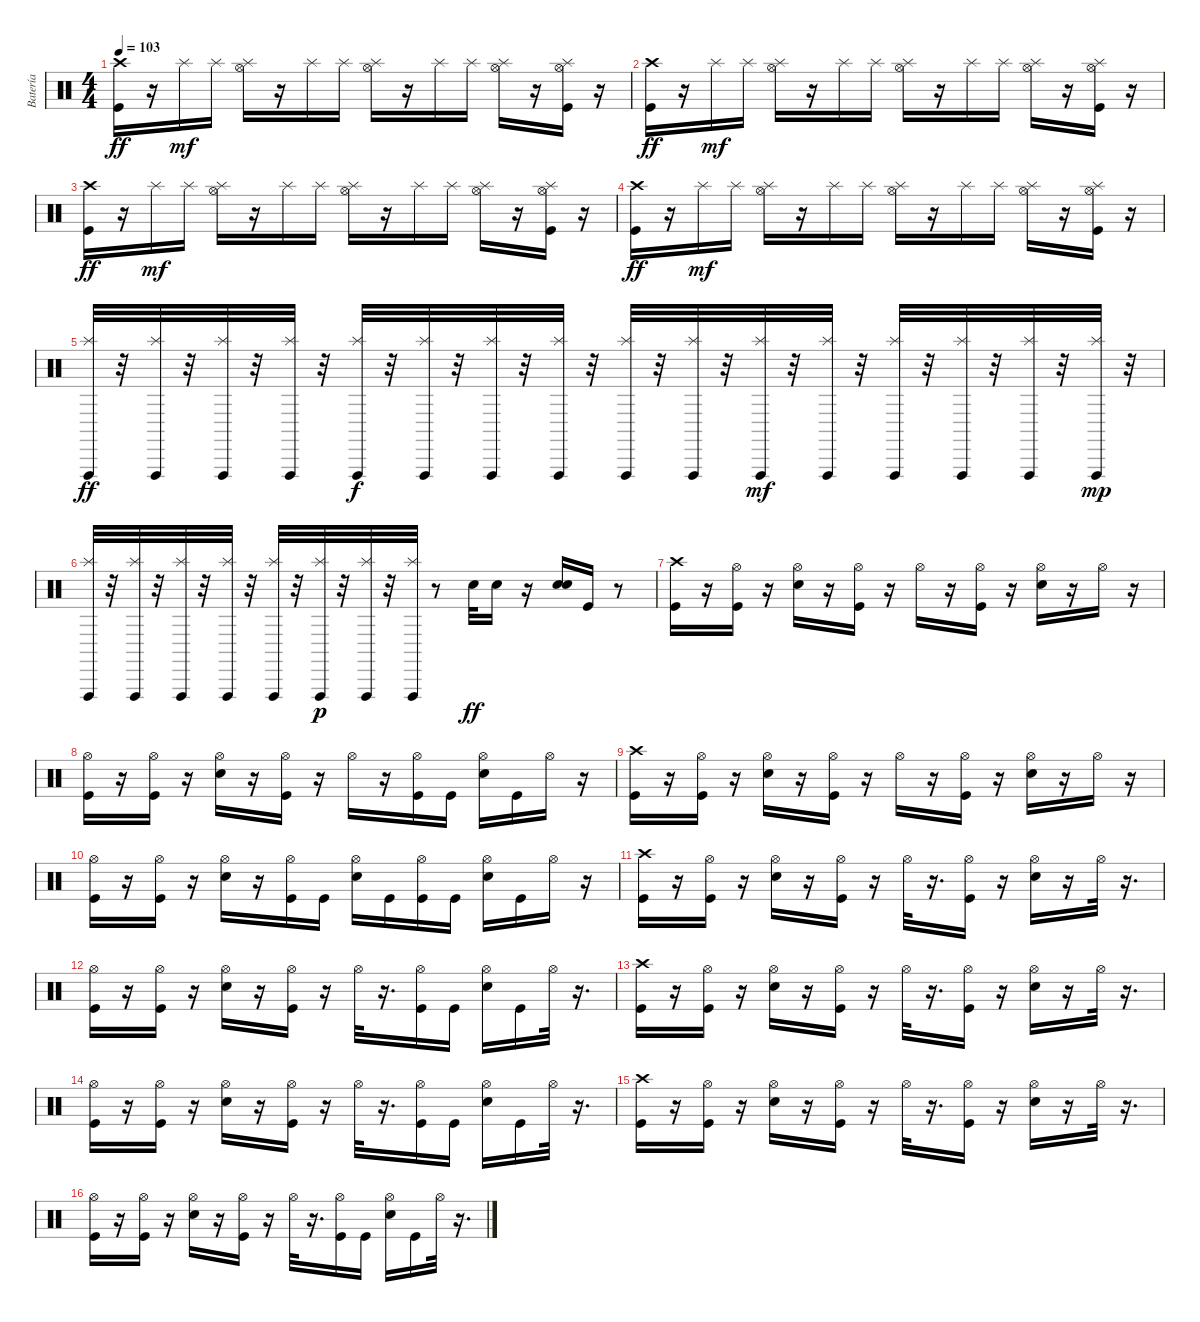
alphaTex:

\track ("Batería" "Batería") {instrument percussion}
\staff {score}
\articulation defaults
\ts (4 4)
\tempo 103
\clef neutral
\ks c
("Crash high (hit)" "Kick (hit)").16{dy ff} r.16 "Splash (hit)".16{dy mf} "Splash (hit)".16 ("Hi-Hat (open)" "Splash (hit)").16 r.16 "Splash (hit)".16 "Splash (hit)".16 ("Hi-Hat (open)" "Splash (hit)").16 r.16 "Splash (hit)".16 "Splash (hit)".16 ("Hi-Hat (open)" "Splash (hit)").16 r.16 ("Kick (hit)" "Hi-Hat (open)" "Splash (hit)").16 r.16 |
("Crash high (hit)" "Kick (hit)").16{dy ff} r.16 "Splash (hit)".16{dy mf} "Splash (hit)".16 ("Hi-Hat (open)" "Splash (hit)").16 r.16 "Splash (hit)".16 "Splash (hit)".16 ("Hi-Hat (open)" "Splash (hit)").16 r.16 "Splash (hit)".16 "Splash (hit)".16 ("Hi-Hat (open)" "Splash (hit)").16 r.16 ("Kick (hit)" "Hi-Hat (open)" "Splash (hit)").16 r.16 |
("Crash high (hit)" "Kick (hit)").16{dy ff} r.16 "Splash (hit)".16{dy mf} "Splash (hit)".16 ("Hi-Hat (open)" "Splash (hit)").16 r.16 "Splash (hit)".16 "Splash (hit)".16 ("Hi-Hat (open)" "Splash (hit)").16 r.16 "Splash (hit)".16 "Splash (hit)".16 ("Hi-Hat (open)" "Splash (hit)").16 r.16 ("Kick (hit)" "Hi-Hat (open)" "Splash (hit)").16 r.16 |
("Crash high (hit)" "Kick (hit)").16{dy ff} r.16 "Splash (hit)".16{dy mf} "Splash (hit)".16 ("Hi-Hat (open)" "Splash (hit)").16 r.16 "Splash (hit)".16 "Splash (hit)".16 ("Hi-Hat (open)" "Splash (hit)").16 r.16 "Splash (hit)".16 "Splash (hit)".16 ("Hi-Hat (open)" "Splash (hit)").16 r.16 ("Kick (hit)" "Hi-Hat (open)" "Splash (hit)").16 r.16 |
("Vibraslap (hit)" "Splash (hit)").32{dy ff} r.32 ("Vibraslap (hit)" "Splash (hit)").32 r.32 ("Vibraslap (hit)" "Splash (hit)").32 r.32 ("Vibraslap (hit)" "Splash (hit)").32 r.32 ("Vibraslap (hit)" "Splash (hit)").32{dy f} r.32 ("Vibraslap (hit)" "Splash (hit)").32 r.32 ("Vibraslap (hit)" "Splash (hit)").32 r.32 ("Vibraslap (hit)" "Splash (hit)").32 r.32 ("Vibraslap (hit)" "Splash (hit)").32 r.32 ("Vibraslap (hit)" "Splash (hit)").32 r.32 ("Vibraslap (hit)" "Splash (hit)").32{dy mf} r.32 ("Vibraslap (hit)" "Splash (hit)").32 r.32 ("Vibraslap (hit)" "Splash (hit)").32 r.32 ("Vibraslap (hit)" "Splash (hit)").32 r.32 ("Vibraslap (hit)" "Splash (hit)").32 r.32 ("Vibraslap (hit)" "Splash (hit)").32{dy mp} r.32 |
("Vibraslap (hit)" "Splash (hit)").32 r.32 ("Vibraslap (hit)" "Splash (hit)").32 r.32 ("Vibraslap (hit)" "Splash (hit)").32 r.32 ("Vibraslap (hit)" "Splash (hit)").32 r.32 ("Vibraslap (hit)" "Splash (hit)").32 r.32 ("Vibraslap (hit)" "Splash (hit)").32{dy p} r.32 ("Vibraslap (hit)" "Splash (hit)").32 r.32 ("Vibraslap (hit)" "Splash (hit)").32 r.8 "Snare (hit) 2".32{dy ff} "Snare (hit) 2".16 r.16 ("Snare (hit) 2" "Snare (hit) 2").16 "Kick (hit)".16 r.8 |
("Crash high (hit)" "Kick (hit)").16 r.16 ("Kick (hit)" "Hi-Hat (open)").16 r.16 ("Snare (hit) 2" "Hi-Hat (open)").16 r.16 ("Kick (hit)" "Hi-Hat (open)").16 r.16 "Hi-Hat (open)".16 r.16 ("Kick (hit)" "Hi-Hat (open)").16 r.16 ("Hi-Hat (open)" "Snare (hit) 2").16 r.16 "Hi-Hat (open)".16 r.16 |
("Kick (hit)" "Hi-Hat (open)").16 r.16 ("Kick (hit)" "Hi-Hat (open)").16 r.16 ("Snare (hit) 2" "Hi-Hat (open)").16 r.16 ("Kick (hit)" "Hi-Hat (open)").16 r.16 "Hi-Hat (open)".16 r.16 ("Kick (hit)" "Hi-Hat (open)").16 "Kick (hit)".16 ("Hi-Hat (open)" "Snare (hit) 2").16 "Kick (hit)".16 "Hi-Hat (open)".16 r.16 |
("Kick (hit)" "Crash high (hit)").16 r.16 ("Kick (hit)" "Hi-Hat (open)").16 r.16 ("Snare (hit) 2" "Hi-Hat (open)").16 r.16 ("Kick (hit)" "Hi-Hat (open)").16 r.16 "Hi-Hat (open)".16 r.16 ("Kick (hit)" "Hi-Hat (open)").16 r.16 ("Hi-Hat (open)" "Snare (hit) 2").16 r.16 "Hi-Hat (open)".16 r.16 |
("Kick (hit)" "Hi-Hat (open)").16 r.16 ("Kick (hit)" "Hi-Hat (open)").16 r.16 ("Snare (hit) 2" "Hi-Hat (open)").16 r.16 ("Kick (hit)" "Hi-Hat (open)").16 "Kick (hit)".16 ("Hi-Hat (open)" "Snare (hit) 2").16 "Kick (hit)".16 ("Kick (hit)" "Hi-Hat (open)").16 "Kick (hit)".16 ("Hi-Hat (open)" "Snare (hit) 2").16 "Kick (hit)".16 "Hi-Hat (open)".16 r.16 |
("Crash high (hit)" "Kick (hit)").16 r.16 ("Kick (hit)" "Hi-Hat (open)").16 r.16 ("Snare (hit) 2" "Hi-Hat (open)").16 r.16 ("Kick (hit)" "Hi-Hat (open)").16 r.16 "Hi-Hat (open)".32 r.16{d} ("Kick (hit)" "Hi-Hat (open)").16 r.16 ("Snare (hit) 2" "Hi-Hat (open)").16 r.16 "Hi-Hat (open)".32 r.16{d} |
("Kick (hit)" "Hi-Hat (open)").16 r.16 ("Kick (hit)" "Hi-Hat (open)").16 r.16 ("Snare (hit) 2" "Hi-Hat (open)").16 r.16 ("Kick (hit)" "Hi-Hat (open)").16 r.16 "Hi-Hat (open)".32 r.16{d} ("Kick (hit)" "Hi-Hat (open)").16 "Kick (hit)".16 ("Snare (hit) 2" "Hi-Hat (open)").16 "Kick (hit)".16 "Hi-Hat (open)".32 r.16{d} |
("Kick (hit)" "Crash high (hit)").16 r.16 ("Kick (hit)" "Hi-Hat (open)").16 r.16 ("Snare (hit) 2" "Hi-Hat (open)").16 r.16 ("Kick (hit)" "Hi-Hat (open)").16 r.16 "Hi-Hat (open)".32 r.16{d} ("Kick (hit)" "Hi-Hat (open)").16 r.16 ("Snare (hit) 2" "Hi-Hat (open)").16 r.16 "Hi-Hat (open)".32 r.16{d} |
("Kick (hit)" "Hi-Hat (open)").16 r.16 ("Kick (hit)" "Hi-Hat (open)").16 r.16 ("Snare (hit) 2" "Hi-Hat (open)").16 r.16 ("Kick (hit)" "Hi-Hat (open)").16 r.16 "Hi-Hat (open)".32 r.16{d} ("Kick (hit)" "Hi-Hat (open)").16 "Kick (hit)".16 ("Snare (hit) 2" "Hi-Hat (open)").16 "Kick (hit)".16 "Hi-Hat (open)".32 r.16{d} |
("Crash high (hit)" "Kick (hit)").16 r.16 ("Kick (hit)" "Hi-Hat (open)").16 r.16 ("Snare (hit) 2" "Hi-Hat (open)").16 r.16 ("Kick (hit)" "Hi-Hat (open)").16 r.16 "Hi-Hat (open)".32 r.16{d} ("Kick (hit)" "Hi-Hat (open)").16 r.16 ("Snare (hit) 2" "Hi-Hat (open)").16 r.16 "Hi-Hat (open)".32 r.16{d} |
("Kick (hit)" "Hi-Hat (open)").16 r.16 ("Kick (hit)" "Hi-Hat (open)").16 r.16 ("Snare (hit) 2" "Hi-Hat (open)").16 r.16 ("Kick (hit)" "Hi-Hat (open)").16 r.16 "Hi-Hat (open)".32 r.16{d} ("Kick (hit)" "Hi-Hat (open)").16 "Kick (hit)".16 ("Snare (hit) 2" "Hi-Hat (open)").16 "Kick (hit)".16 "Hi-Hat (open)".32 r.16{d}
